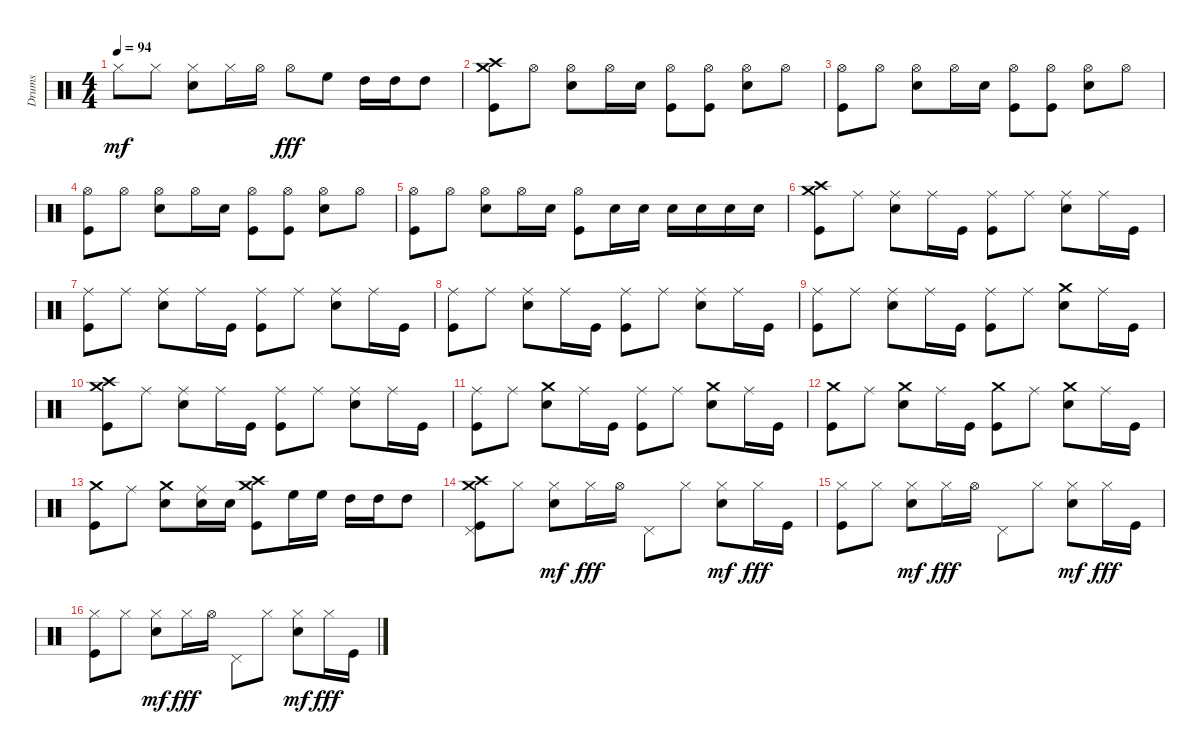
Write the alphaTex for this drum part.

\track ("Drums" "Drums") {instrument percussion}
\staff {score}
\articulation defaults
\ts (4 4)
\tempo 94
\clef neutral
\ks c "Hi-Hat (closed)".8{dy mf} "Hi-Hat (closed)".8
("Hi-Hat (closed)" "Snare (hit) 2").8 "Hi-Hat (closed)".16 "Hi-Hat (open)".16 "Hi-Hat (open)".8{dy fff} "High Floor Tom (hit)".8 "High Tom (hit)".16 "High Tom (hit)".16 "High Tom (hit)".8 |
("Crash high (hit)" "Crash medium (hit)" "Kick (hit)").8 "Hi-Hat (open)".8 ("Hi-Hat (open)" "Snare (hit) 2").8 "Hi-Hat (open)".16 "Snare (hit) 2".16 ("Hi-Hat (open)" "Kick (hit)").8 ("Hi-Hat (open)" "Kick (hit)").8 ("Hi-Hat (open)" "Snare (hit) 2").8 "Hi-Hat (open)".8 |
("Hi-Hat (open)" "Kick (hit)").8 "Hi-Hat (open)".8 ("Hi-Hat (open)" "Snare (hit) 2").8 "Hi-Hat (open)".16 "Snare (hit) 2".16 ("Hi-Hat (open)" "Kick (hit)").8 ("Hi-Hat (open)" "Kick (hit)").8 ("Hi-Hat (open)" "Snare (hit) 2").8 "Hi-Hat (open)".8 |
("Hi-Hat (open)" "Kick (hit)").8 "Hi-Hat (open)".8 ("Hi-Hat (open)" "Snare (hit) 2").8 "Hi-Hat (open)".16 "Snare (hit) 2".16 ("Hi-Hat (open)" "Kick (hit)").8 ("Hi-Hat (open)" "Kick (hit)").8 ("Hi-Hat (open)" "Snare (hit) 2").8 "Hi-Hat (open)".8 |
("Hi-Hat (open)" "Kick (hit)").8 "Hi-Hat (open)".8 ("Hi-Hat (open)" "Snare (hit) 2").8 "Hi-Hat (open)".16 "Snare (hit) 2".16 ("Hi-Hat (open)" "Kick (hit)").8 "Snare (hit) 2".16 "Snare (hit) 2".16 "Snare (hit) 2".16 "Snare (hit) 2".16 "Snare (hit) 2".16 "Snare (hit) 2".16 |
("Crash high (hit)" "Crash medium (hit)" "Kick (hit)").8 "Ride (middle)".8 ("Ride (middle)" "Snare (hit) 2").8 "Ride (middle)".16 "Kick (hit)".16 ("Ride (middle)" "Kick (hit)").8 "Ride (middle)".8 ("Ride (middle)" "Snare (hit) 2").8 "Ride (middle)".16 "Kick (hit)".16 |
("Ride (middle)" "Kick (hit)").8 "Ride (middle)".8 ("Ride (middle)" "Snare (hit) 2").8 "Ride (middle)".16 "Kick (hit)".16 ("Ride (middle)" "Kick (hit)").8 "Ride (middle)".8 ("Ride (middle)" "Snare (hit) 2").8 "Ride (middle)".16 "Kick (hit)".16 |
("Ride (middle)" "Kick (hit)").8 "Ride (middle)".8 ("Ride (middle)" "Snare (hit) 2").8 "Ride (middle)".16 "Kick (hit)".16 ("Ride (middle)" "Kick (hit)").8 "Ride (middle)".8 ("Ride (middle)" "Snare (hit) 2").8 "Ride (middle)".16 "Kick (hit)".16 |
("Ride (middle)" "Kick (hit)").8 "Ride (middle)".8 ("Ride (middle)" "Snare (hit) 2").8 "Ride (middle)".16 "Kick (hit)".16 ("Ride (middle)" "Kick (hit)").8 "Ride (middle)".8 ("Crash medium (hit)" "Snare (hit) 2").8 "Ride (middle)".16 "Kick (hit)".16 |
("Crash high (hit)" "Crash medium (hit)" "Kick (hit)").8 "Ride (middle)".8 ("Ride (middle)" "Snare (hit) 2").8 "Ride (middle)".16 "Kick (hit)".16 ("Ride (middle)" "Kick (hit)").8 "Ride (middle)".8 ("Ride (middle)" "Snare (hit) 2").8 "Ride (middle)".16 "Kick (hit)".16 |
("Ride (middle)" "Kick (hit)").8 "Ride (middle)".8 ("Crash medium (hit)" "Snare (hit) 2").8 "Ride (middle)".16 "Kick (hit)".16 ("Ride (middle)" "Kick (hit)").8 "Ride (middle)".8 ("Crash medium (hit)" "Snare (hit) 2").8 "Ride (middle)".16 "Kick (hit)".16 |
("Crash medium (hit)" "Kick (hit)").8 "Ride (middle)".8 ("Crash medium (hit)" "Snare (hit) 2").8 "Ride (middle)".16 "Kick (hit)".16 ("Crash medium (hit)" "Kick (hit)").8 "Ride (middle)".8 ("Crash medium (hit)" "Snare (hit) 2").8 "Ride (middle)".16 "Kick (hit)".16 |
("Crash medium (hit)" "Kick (hit)").8 "Ride (middle)".8 ("Crash medium (hit)" "Snare (hit) 2").8 ("Ride (middle)" "Snare (hit) 2").16 "Snare (hit) 2".16 ("Crash high (hit)" "Crash medium (hit)" "Kick (hit)").8 "High Floor Tom (hit)".16 "High Floor Tom (hit)".16 "High Tom (hit)".16 "High Tom (hit)".16 "High Tom (hit)".8 |
("Crash high (hit)" "Crash medium (hit)" "Pedal Hi-Hat (hit)" "Kick (hit)").8 "Hi-Hat (closed)".8 ("Hi-Hat (closed)" "Snare (hit) 2").8{dy mf} "Hi-Hat (closed)".16{dy fff} "Hi-Hat (open)".16 "Pedal Hi-Hat (hit)".8 "Hi-Hat (closed)".8 ("Hi-Hat (closed)" "Snare (hit) 2").8{dy mf} "Hi-Hat (closed)".16{dy fff} "Kick (hit)".16 |
("Hi-Hat (closed)" "Kick (hit)").8 "Hi-Hat (closed)".8 ("Hi-Hat (closed)" "Snare (hit) 2").8{dy mf} "Hi-Hat (closed)".16{dy fff} "Hi-Hat (open)".16 "Pedal Hi-Hat (hit)".8 "Hi-Hat (closed)".8 ("Hi-Hat (closed)" "Snare (hit) 2").8{dy mf} "Hi-Hat (closed)".16{dy fff} "Kick (hit)".16 |
("Hi-Hat (closed)" "Kick (hit)").8 "Hi-Hat (closed)".8 ("Hi-Hat (closed)" "Snare (hit) 2").8{dy mf} "Hi-Hat (closed)".16{dy fff} "Hi-Hat (open)".16 "Pedal Hi-Hat (hit)".8 "Hi-Hat (closed)".8 ("Hi-Hat (closed)" "Snare (hit) 2").8{dy mf} "Hi-Hat (closed)".16{dy fff} "Kick (hit)".16
